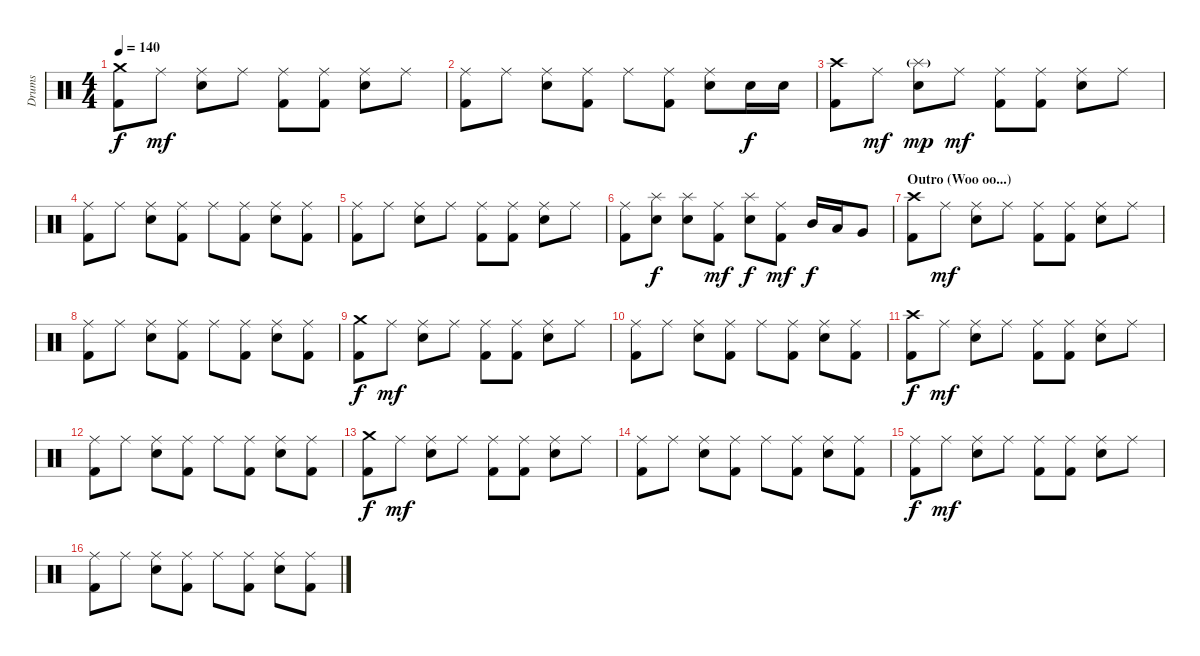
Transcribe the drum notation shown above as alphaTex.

\track ("Drums" "Drums") {instrument percussion}
\staff {score}
\articulation defaults
\ts (4 4)
\tempo 140
\clef neutral
\ks c
("Crash medium (hit)" "Kick (hit) 2").8{dy f} "Ride (middle)".8{dy mf} ("Ride (middle)" "Electric Snare (hit)").8 "Ride (middle)".8 ("Ride (middle)" "Kick (hit) 2").8 ("Ride (middle)" "Kick (hit) 2").8 ("Ride (middle)" "Electric Snare (hit)").8 "Ride (middle)".8 |
("Ride (middle)" "Kick (hit) 2").8 "Ride (middle)".8 ("Ride (middle)" "Electric Snare (hit)").8 ("Ride (middle)" "Kick (hit) 2").8 "Ride (middle)".8 ("Ride (middle)" "Kick (hit) 2").8 ("Ride (middle)" "Electric Snare (hit)").8 "Electric Snare (hit)".16{dy f} "Electric Snare (hit)".16 |
("Crash high (hit)" "Kick (hit) 2").8 "Ride (middle)".8{dy mf} ("Splash (hit)"{g} "Electric Snare (hit)").8{dy mp} "Ride (middle)".8{dy mf} ("Ride (middle)" "Kick (hit) 2").8 ("Ride (middle)" "Kick (hit) 2").8 ("Ride (middle)" "Electric Snare (hit)").8 "Ride (middle)".8 |
("Ride (middle)" "Kick (hit) 2").8 "Ride (middle)".8 ("Ride (middle)" "Electric Snare (hit)").8 ("Ride (middle)" "Kick (hit) 2").8 "Ride (middle)".8 ("Ride (middle)" "Kick (hit) 2").8 ("Ride (middle)" "Electric Snare (hit)").8 ("Ride (middle)" "Kick (hit) 2").8 |
("Ride (middle)" "Kick (hit) 2").8 "Ride (middle)".8 ("Ride (middle)" "Electric Snare (hit)").8 "Ride (middle)".8 ("Ride (middle)" "Kick (hit) 2").8 ("Ride (middle)" "Kick (hit) 2").8 ("Ride (middle)" "Electric Snare (hit)").8 "Ride (middle)".8 |
("Ride (middle)" "Kick (hit) 2").8 ("Splash (hit)" "Electric Snare (hit)").8{dy f} ("Splash (hit)" "Electric Snare (hit)").8 ("Ride (middle)" "Kick (hit) 2").8{dy mf} ("Splash (hit)" "Electric Snare (hit)").8{dy f} ("Ride (middle)" "Kick (hit) 2").8{dy mf} "Mid Tom (hit)".16{dy f} "Low Tom (hit)".16 "Very Low Tom (hit)".8 |
\section ("" "Outro (Woo oo...)")
("Crash high (hit)" "Kick (hit) 2").8 "Ride (middle)".8{dy mf} ("Ride (middle)" "Electric Snare (hit)").8 "Ride (middle)".8 ("Ride (middle)" "Kick (hit) 2").8 ("Ride (middle)" "Kick (hit) 2").8 ("Ride (middle)" "Electric Snare (hit)").8 "Ride (middle)".8 |
("Ride (middle)" "Kick (hit) 2").8 "Ride (middle)".8 ("Ride (middle)" "Electric Snare (hit)").8 ("Ride (middle)" "Kick (hit) 2").8 "Ride (middle)".8 ("Ride (middle)" "Kick (hit) 2").8 ("Ride (middle)" "Electric Snare (hit)").8 ("Ride (middle)" "Kick (hit) 2").8 |
("Crash medium (hit)" "Kick (hit) 2").8{dy f} "Ride (middle)".8{dy mf} ("Ride (middle)" "Electric Snare (hit)").8 "Ride (middle)".8 ("Ride (middle)" "Kick (hit) 2").8 ("Ride (middle)" "Kick (hit) 2").8 ("Ride (middle)" "Electric Snare (hit)").8 "Ride (middle)".8 |
("Ride (middle)" "Kick (hit) 2").8 "Ride (middle)".8 ("Ride (middle)" "Electric Snare (hit)").8 ("Ride (middle)" "Kick (hit) 2").8 "Ride (middle)".8 ("Ride (middle)" "Kick (hit) 2").8 ("Ride (middle)" "Electric Snare (hit)").8 ("Ride (middle)" "Kick (hit) 2").8 |
("Crash high (hit)" "Kick (hit) 2").8{dy f} "Ride (middle)".8{dy mf} ("Ride (middle)" "Electric Snare (hit)").8 "Ride (middle)".8 ("Ride (middle)" "Kick (hit) 2").8 ("Ride (middle)" "Kick (hit) 2").8 ("Ride (middle)" "Electric Snare (hit)").8 "Ride (middle)".8 |
("Ride (middle)" "Kick (hit) 2").8 "Ride (middle)".8 ("Ride (middle)" "Electric Snare (hit)").8 ("Ride (middle)" "Kick (hit) 2").8 "Ride (middle)".8 ("Ride (middle)" "Kick (hit) 2").8 ("Ride (middle)" "Electric Snare (hit)").8 ("Ride (middle)" "Kick (hit) 2").8 |
("Crash medium (hit)" "Kick (hit) 2").8{dy f} "Ride (middle)".8{dy mf} ("Ride (middle)" "Electric Snare (hit)").8 "Ride (middle)".8 ("Ride (middle)" "Kick (hit) 2").8 ("Ride (middle)" "Kick (hit) 2").8 ("Ride (middle)" "Electric Snare (hit)").8 "Ride (middle)".8 |
("Ride (middle)" "Kick (hit) 2").8 "Ride (middle)".8 ("Ride (middle)" "Electric Snare (hit)").8 ("Ride (middle)" "Kick (hit) 2").8 "Ride (middle)".8 ("Ride (middle)" "Kick (hit) 2").8 ("Ride (middle)" "Electric Snare (hit)").8 ("Ride (middle)" "Kick (hit) 2").8 |
("Ride (middle)" "Kick (hit) 2").8{dy f} "Ride (middle)".8{dy mf} ("Ride (middle)" "Electric Snare (hit)").8 "Ride (middle)".8 ("Ride (middle)" "Kick (hit) 2").8 ("Ride (middle)" "Kick (hit) 2").8 ("Ride (middle)" "Electric Snare (hit)").8 "Ride (middle)".8 |
("Ride (middle)" "Kick (hit) 2").8 "Ride (middle)".8 ("Ride (middle)" "Electric Snare (hit)").8 ("Ride (middle)" "Kick (hit) 2").8 "Ride (middle)".8 ("Ride (middle)" "Kick (hit) 2").8 ("Ride (middle)" "Electric Snare (hit)").8 ("Ride (middle)" "Kick (hit) 2").8
